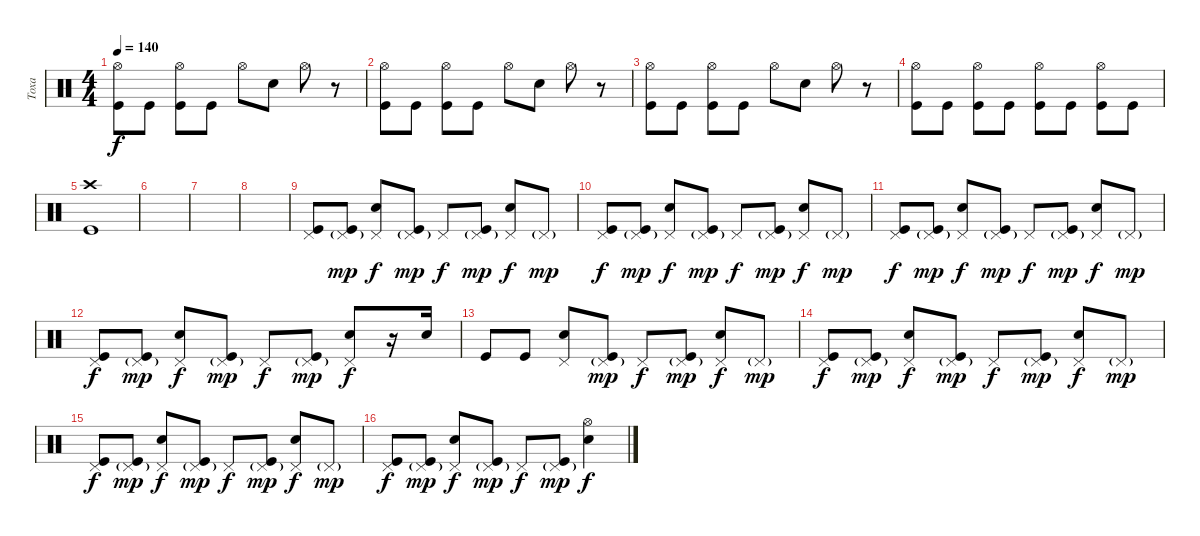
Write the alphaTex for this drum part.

\track ("Тоха" "Тоха") {instrument percussion}
\staff {score}
\articulation defaults
\ts (4 4)
\tempo 140
\clef neutral
\ks c
("Kick (hit)" "Hi-Hat (open)").8{dy f} "Kick (hit)".8 ("Kick (hit)" "Hi-Hat (open)").8 "Kick (hit)".8 "Hi-Hat (open)".8 "Snare (hit) 2".8 "Hi-Hat (open)".8 r.8 |
("Kick (hit)" "Hi-Hat (open)").8 "Kick (hit)".8 ("Kick (hit)" "Hi-Hat (open)").8 "Kick (hit)".8 "Hi-Hat (open)".8 "Snare (hit) 2".8 "Hi-Hat (open)".8 r.8 |
("Kick (hit)" "Hi-Hat (open)").8 "Kick (hit)".8 ("Kick (hit)" "Hi-Hat (open)").8 "Kick (hit)".8 "Hi-Hat (open)".8 "Snare (hit) 2".8 "Hi-Hat (open)".8 r.8 |
("Kick (hit)" "Hi-Hat (open)").8 "Kick (hit)".8 ("Kick (hit)" "Hi-Hat (open)").8 "Kick (hit)".8 ("Kick (hit)" "Hi-Hat (open)").8 "Kick (hit)".8 ("Kick (hit)" "Hi-Hat (open)").8 "Kick (hit)".8 |
("Kick (hit)" "Crash high (hit)").1 |
|
|
|
("Kick (hit)" "Pedal Hi-Hat (hit)").8 ("Kick (hit)" "Pedal Hi-Hat (hit)"{g}).8{dy mp} ("Snare (hit) 2" "Pedal Hi-Hat (hit)").8{dy f} ("Kick (hit)" "Pedal Hi-Hat (hit)"{g}).8{dy mp} "Pedal Hi-Hat (hit)".8{dy f} ("Kick (hit)" "Pedal Hi-Hat (hit)"{g}).8{dy mp} ("Snare (hit) 2" "Pedal Hi-Hat (hit)").8{dy f} "Pedal Hi-Hat (hit)"{g}.8{dy mp} |
("Kick (hit)" "Pedal Hi-Hat (hit)").8{dy f} ("Kick (hit)" "Pedal Hi-Hat (hit)"{g}).8{dy mp} ("Snare (hit) 2" "Pedal Hi-Hat (hit)").8{dy f} ("Kick (hit)" "Pedal Hi-Hat (hit)"{g}).8{dy mp} "Pedal Hi-Hat (hit)".8{dy f} ("Kick (hit)" "Pedal Hi-Hat (hit)"{g}).8{dy mp} ("Snare (hit) 2" "Pedal Hi-Hat (hit)").8{dy f} "Pedal Hi-Hat (hit)"{g}.8{dy mp} |
("Kick (hit)" "Pedal Hi-Hat (hit)").8{dy f} ("Kick (hit)" "Pedal Hi-Hat (hit)"{g}).8{dy mp} ("Snare (hit) 2" "Pedal Hi-Hat (hit)").8{dy f} ("Kick (hit)" "Pedal Hi-Hat (hit)"{g}).8{dy mp} "Pedal Hi-Hat (hit)".8{dy f} ("Kick (hit)" "Pedal Hi-Hat (hit)"{g}).8{dy mp} ("Snare (hit) 2" "Pedal Hi-Hat (hit)").8{dy f} "Pedal Hi-Hat (hit)"{g}.8{dy mp} |
("Kick (hit)" "Pedal Hi-Hat (hit)").8{dy f} ("Kick (hit)" "Pedal Hi-Hat (hit)"{g}).8{dy mp} ("Snare (hit) 2" "Pedal Hi-Hat (hit)").8{dy f} ("Kick (hit)" "Pedal Hi-Hat (hit)"{g}).8{dy mp} "Pedal Hi-Hat (hit)".8{dy f} ("Kick (hit)" "Pedal Hi-Hat (hit)"{g}).8{dy mp} ("Snare (hit) 2" "Pedal Hi-Hat (hit)").8{dy f} r.16 "Snare (hit) 2".16 |
"Kick (hit)".8 "Kick (hit)".8 ("Snare (hit) 2" "Pedal Hi-Hat (hit)").8 ("Kick (hit)" "Pedal Hi-Hat (hit)"{g}).8{dy mp} "Pedal Hi-Hat (hit)".8{dy f} ("Kick (hit)" "Pedal Hi-Hat (hit)"{g}).8{dy mp} ("Snare (hit) 2" "Pedal Hi-Hat (hit)").8{dy f} "Pedal Hi-Hat (hit)"{g}.8{dy mp} |
("Kick (hit)" "Pedal Hi-Hat (hit)").8{dy f} ("Kick (hit)" "Pedal Hi-Hat (hit)"{g}).8{dy mp} ("Snare (hit) 2" "Pedal Hi-Hat (hit)").8{dy f} ("Kick (hit)" "Pedal Hi-Hat (hit)"{g}).8{dy mp} "Pedal Hi-Hat (hit)".8{dy f} ("Kick (hit)" "Pedal Hi-Hat (hit)"{g}).8{dy mp} ("Snare (hit) 2" "Pedal Hi-Hat (hit)").8{dy f} "Pedal Hi-Hat (hit)"{g}.8{dy mp} |
("Kick (hit)" "Pedal Hi-Hat (hit)").8{dy f} ("Kick (hit)" "Pedal Hi-Hat (hit)"{g}).8{dy mp} ("Snare (hit) 2" "Pedal Hi-Hat (hit)").8{dy f} ("Kick (hit)" "Pedal Hi-Hat (hit)"{g}).8{dy mp} "Pedal Hi-Hat (hit)".8{dy f} ("Kick (hit)" "Pedal Hi-Hat (hit)"{g}).8{dy mp} ("Snare (hit) 2" "Pedal Hi-Hat (hit)").8{dy f} "Pedal Hi-Hat (hit)"{g}.8{dy mp} |
("Kick (hit)" "Pedal Hi-Hat (hit)").8{dy f} ("Kick (hit)" "Pedal Hi-Hat (hit)"{g}).8{dy mp} ("Snare (hit) 2" "Pedal Hi-Hat (hit)").8{dy f} ("Kick (hit)" "Pedal Hi-Hat (hit)"{g}).8{dy mp} "Pedal Hi-Hat (hit)".8{dy f} ("Kick (hit)" "Pedal Hi-Hat (hit)"{g}).8{dy mp} ("Snare (hit) 2" "Hi-Hat (open)").4{dy f}
